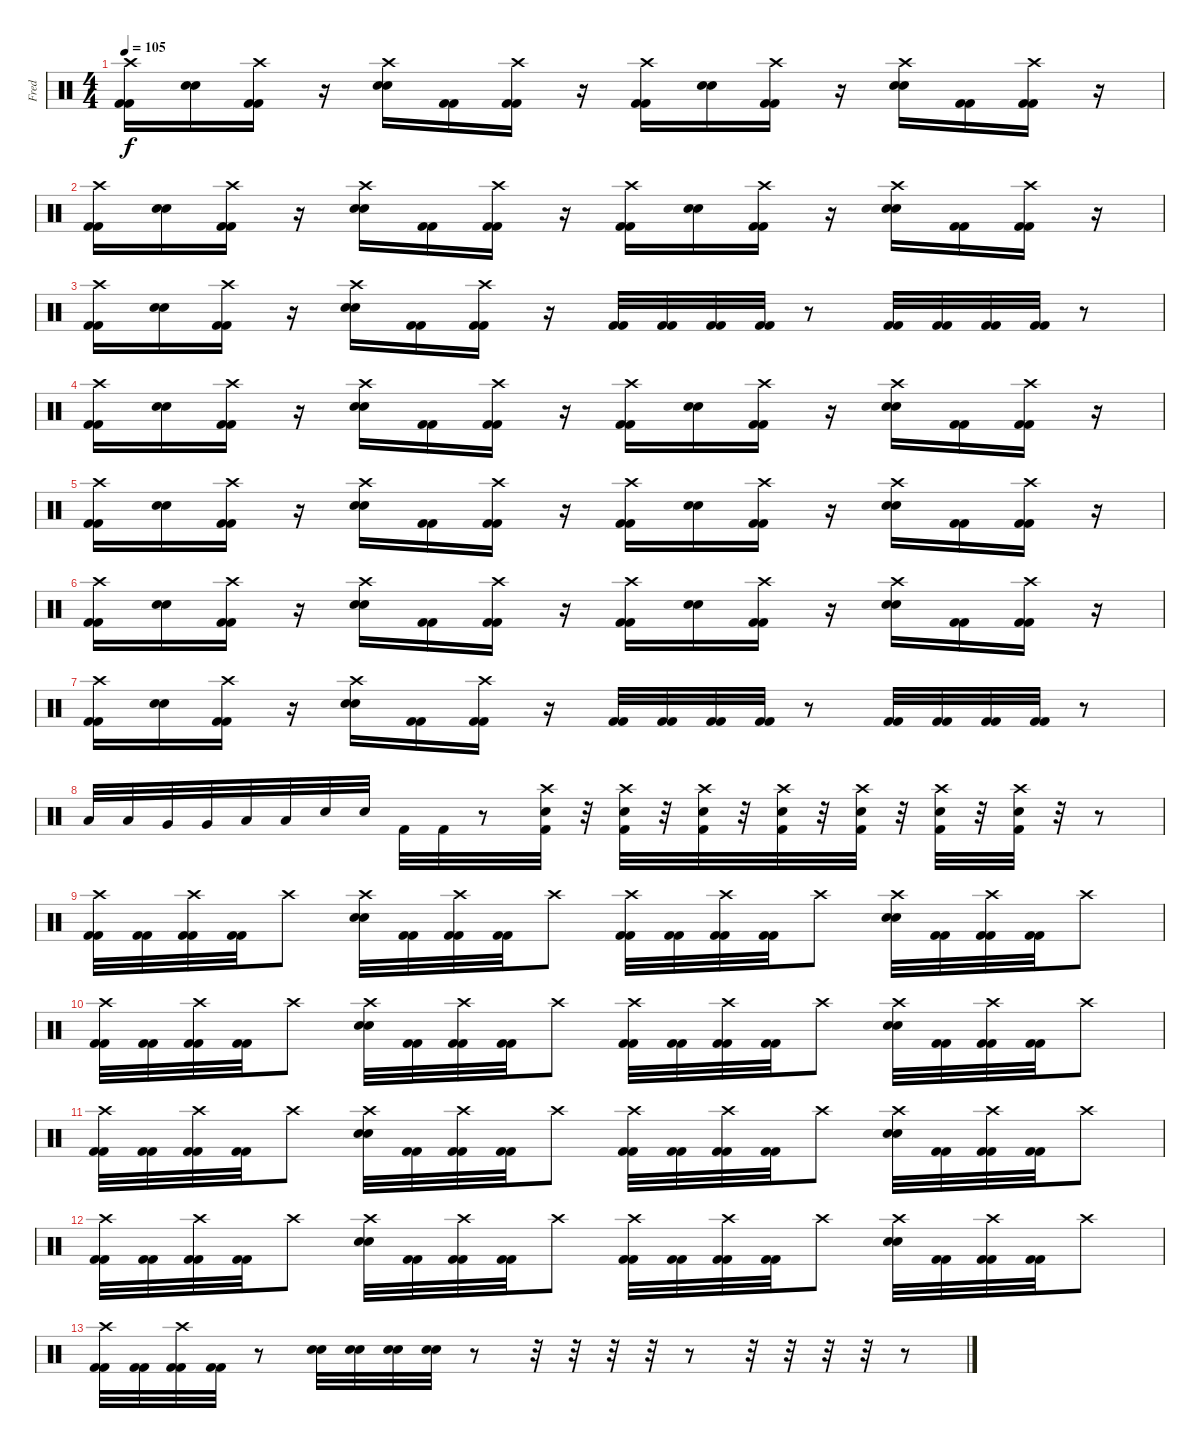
\track ("Fred" "Fred") {instrument percussion}
\staff {score}
\articulation defaults
\ts (4 4)
\tempo 105
\clef neutral
\ks c
("Crash high (hit)" "Kick (hit) 2" "Kick (hit) 2").16{dy f} ("Electric Snare (hit)" "Electric Snare (hit)").16 ("Crash high (hit)" "Kick (hit) 2" "Kick (hit) 2").16 r.16 ("Crash high (hit)" "Electric Snare (hit)" "Electric Snare (hit)").16 ("Kick (hit) 2" "Kick (hit) 2").16 ("Crash high (hit)" "Kick (hit) 2" "Kick (hit) 2").16 r.16 ("Crash high (hit)" "Kick (hit) 2" "Kick (hit) 2").16 ("Electric Snare (hit)" "Electric Snare (hit)").16 ("Crash high (hit)" "Kick (hit) 2" "Kick (hit) 2").16 r.16 ("Crash high (hit)" "Electric Snare (hit)" "Electric Snare (hit)").16 ("Kick (hit) 2" "Kick (hit) 2").16 ("Crash high (hit)" "Kick (hit) 2" "Kick (hit) 2").16 r.16 |
("Crash high (hit)" "Kick (hit) 2" "Kick (hit) 2").16 ("Electric Snare (hit)" "Electric Snare (hit)").16 ("Crash high (hit)" "Kick (hit) 2" "Kick (hit) 2").16 r.16 ("Crash high (hit)" "Electric Snare (hit)" "Electric Snare (hit)").16 ("Kick (hit) 2" "Kick (hit) 2").16 ("Crash high (hit)" "Kick (hit) 2" "Kick (hit) 2").16 r.16 ("Crash high (hit)" "Kick (hit) 2" "Kick (hit) 2").16 ("Electric Snare (hit)" "Electric Snare (hit)").16 ("Crash high (hit)" "Kick (hit) 2" "Kick (hit) 2").16 r.16 ("Crash high (hit)" "Electric Snare (hit)" "Electric Snare (hit)").16 ("Kick (hit) 2" "Kick (hit) 2").16 ("Crash high (hit)" "Kick (hit) 2" "Kick (hit) 2").16 r.16 |
("Crash high (hit)" "Kick (hit) 2" "Kick (hit) 2").16 ("Electric Snare (hit)" "Electric Snare (hit)").16 ("Crash high (hit)" "Kick (hit) 2" "Kick (hit) 2").16 r.16 ("Crash high (hit)" "Electric Snare (hit)" "Electric Snare (hit)").16 ("Kick (hit) 2" "Kick (hit) 2").16 ("Crash high (hit)" "Kick (hit) 2" "Kick (hit) 2").16 r.16 ("Kick (hit) 2" "Kick (hit) 2").32 ("Kick (hit) 2" "Kick (hit) 2").32 ("Kick (hit) 2" "Kick (hit) 2").32 ("Kick (hit) 2" "Kick (hit) 2").32 r.8 ("Kick (hit) 2" "Kick (hit) 2").32 ("Kick (hit) 2" "Kick (hit) 2").32 ("Kick (hit) 2" "Kick (hit) 2").32 ("Kick (hit) 2" "Kick (hit) 2").32 r.8 |
("Crash high (hit)" "Kick (hit) 2" "Kick (hit) 2").16 ("Electric Snare (hit)" "Electric Snare (hit)").16 ("Crash high (hit)" "Kick (hit) 2" "Kick (hit) 2").16 r.16 ("Crash high (hit)" "Electric Snare (hit)" "Electric Snare (hit)").16 ("Kick (hit) 2" "Kick (hit) 2").16 ("Crash high (hit)" "Kick (hit) 2" "Kick (hit) 2").16 r.16 ("Crash high (hit)" "Kick (hit) 2" "Kick (hit) 2").16 ("Electric Snare (hit)" "Electric Snare (hit)").16 ("Crash high (hit)" "Kick (hit) 2" "Kick (hit) 2").16 r.16 ("Crash high (hit)" "Electric Snare (hit)" "Electric Snare (hit)").16 ("Kick (hit) 2" "Kick (hit) 2").16 ("Crash high (hit)" "Kick (hit) 2" "Kick (hit) 2").16 r.16 |
("Crash high (hit)" "Kick (hit) 2" "Kick (hit) 2").16 ("Electric Snare (hit)" "Electric Snare (hit)").16 ("Crash high (hit)" "Kick (hit) 2" "Kick (hit) 2").16 r.16 ("Crash high (hit)" "Electric Snare (hit)" "Electric Snare (hit)").16 ("Kick (hit) 2" "Kick (hit) 2").16 ("Crash high (hit)" "Kick (hit) 2" "Kick (hit) 2").16 r.16 ("Crash high (hit)" "Kick (hit) 2" "Kick (hit) 2").16 ("Electric Snare (hit)" "Electric Snare (hit)").16 ("Crash high (hit)" "Kick (hit) 2" "Kick (hit) 2").16 r.16 ("Crash high (hit)" "Electric Snare (hit)" "Electric Snare (hit)").16 ("Kick (hit) 2" "Kick (hit) 2").16 ("Crash high (hit)" "Kick (hit) 2" "Kick (hit) 2").16 r.16 |
("Crash high (hit)" "Kick (hit) 2" "Kick (hit) 2").16 ("Electric Snare (hit)" "Electric Snare (hit)").16 ("Crash high (hit)" "Kick (hit) 2" "Kick (hit) 2").16 r.16 ("Crash high (hit)" "Electric Snare (hit)" "Electric Snare (hit)").16 ("Kick (hit) 2" "Kick (hit) 2").16 ("Crash high (hit)" "Kick (hit) 2" "Kick (hit) 2").16 r.16 ("Crash high (hit)" "Kick (hit) 2" "Kick (hit) 2").16 ("Electric Snare (hit)" "Electric Snare (hit)").16 ("Crash high (hit)" "Kick (hit) 2" "Kick (hit) 2").16 r.16 ("Crash high (hit)" "Electric Snare (hit)" "Electric Snare (hit)").16 ("Kick (hit) 2" "Kick (hit) 2").16 ("Crash high (hit)" "Kick (hit) 2" "Kick (hit) 2").16 r.16 |
("Crash high (hit)" "Kick (hit) 2" "Kick (hit) 2").16 ("Electric Snare (hit)" "Electric Snare (hit)").16 ("Crash high (hit)" "Kick (hit) 2" "Kick (hit) 2").16 r.16 ("Crash high (hit)" "Electric Snare (hit)" "Electric Snare (hit)").16 ("Kick (hit) 2" "Kick (hit) 2").16 ("Crash high (hit)" "Kick (hit) 2" "Kick (hit) 2").16 r.16 ("Kick (hit) 2" "Kick (hit) 2").32 ("Kick (hit) 2" "Kick (hit) 2").32 ("Kick (hit) 2" "Kick (hit) 2").32 ("Kick (hit) 2" "Kick (hit) 2").32 r.8 ("Kick (hit) 2" "Kick (hit) 2").32 ("Kick (hit) 2" "Kick (hit) 2").32 ("Kick (hit) 2" "Kick (hit) 2").32 ("Kick (hit) 2" "Kick (hit) 2").32 r.8 |
"Low Tom (hit)".32 "Low Tom (hit)".32 "Very Low Tom (hit)".32 "Very Low Tom (hit)".32 "Low Floor Tom (hit)".32 "Low Floor Tom (hit)".32 "Electric Snare (hit)".32 "Electric Snare (hit)".32 "Kick (hit) 2".32 "Kick (hit) 2".32 r.8 ("Crash high (hit)" "Electric Snare (hit)" "Kick (hit) 2").32 r.32 ("Crash high (hit)" "Electric Snare (hit)" "Kick (hit) 2").32 r.32 ("Crash high (hit)" "Electric Snare (hit)" "Kick (hit) 2").32 r.32 ("Crash high (hit)" "Electric Snare (hit)" "Kick (hit) 2").32 r.32 ("Crash high (hit)" "Electric Snare (hit)" "Kick (hit) 2").32 r.32 ("Crash high (hit)" "Electric Snare (hit)" "Kick (hit) 2").32 r.32 ("Crash high (hit)" "Electric Snare (hit)" "Kick (hit) 2").32 r.32 r.8 |
("Crash high (hit)" "Kick (hit) 2" "Kick (hit) 2").32 ("Kick (hit) 2" "Kick (hit) 2").32 ("Crash high (hit)" "Kick (hit) 2" "Kick (hit) 2").32 ("Kick (hit) 2" "Kick (hit) 2").32 "Crash high (hit)".8 ("Crash high (hit)" "Electric Snare (hit)" "Electric Snare (hit)").32 ("Kick (hit) 2" "Kick (hit) 2").32 ("Crash high (hit)" "Kick (hit) 2" "Kick (hit) 2").32 ("Kick (hit) 2" "Kick (hit) 2").32 "Crash high (hit)".8 ("Crash high (hit)" "Kick (hit) 2" "Kick (hit) 2").32 ("Kick (hit) 2" "Kick (hit) 2").32 ("Crash high (hit)" "Kick (hit) 2" "Kick (hit) 2").32 ("Kick (hit) 2" "Kick (hit) 2").32 "Crash high (hit)".8 ("Crash high (hit)" "Electric Snare (hit)" "Electric Snare (hit)").32 ("Kick (hit) 2" "Kick (hit) 2").32 ("Crash high (hit)" "Kick (hit) 2" "Kick (hit) 2").32 ("Kick (hit) 2" "Kick (hit) 2").32 "Crash high (hit)".8 |
("Crash high (hit)" "Kick (hit) 2" "Kick (hit) 2").32 ("Kick (hit) 2" "Kick (hit) 2").32 ("Crash high (hit)" "Kick (hit) 2" "Kick (hit) 2").32 ("Kick (hit) 2" "Kick (hit) 2").32 "Crash high (hit)".8 ("Crash high (hit)" "Electric Snare (hit)" "Electric Snare (hit)").32 ("Kick (hit) 2" "Kick (hit) 2").32 ("Crash high (hit)" "Kick (hit) 2" "Kick (hit) 2").32 ("Kick (hit) 2" "Kick (hit) 2").32 "Crash high (hit)".8 ("Crash high (hit)" "Kick (hit) 2" "Kick (hit) 2").32 ("Kick (hit) 2" "Kick (hit) 2").32 ("Crash high (hit)" "Kick (hit) 2" "Kick (hit) 2").32 ("Kick (hit) 2" "Kick (hit) 2").32 "Crash high (hit)".8 ("Crash high (hit)" "Electric Snare (hit)" "Electric Snare (hit)").32 ("Kick (hit) 2" "Kick (hit) 2").32 ("Crash high (hit)" "Kick (hit) 2" "Kick (hit) 2").32 ("Kick (hit) 2" "Kick (hit) 2").32 "Crash high (hit)".8 |
("Crash high (hit)" "Kick (hit) 2" "Kick (hit) 2").32 ("Kick (hit) 2" "Kick (hit) 2").32 ("Crash high (hit)" "Kick (hit) 2" "Kick (hit) 2").32 ("Kick (hit) 2" "Kick (hit) 2").32 "Crash high (hit)".8 ("Crash high (hit)" "Electric Snare (hit)" "Electric Snare (hit)").32 ("Kick (hit) 2" "Kick (hit) 2").32 ("Crash high (hit)" "Kick (hit) 2" "Kick (hit) 2").32 ("Kick (hit) 2" "Kick (hit) 2").32 "Crash high (hit)".8 ("Crash high (hit)" "Kick (hit) 2" "Kick (hit) 2").32 ("Kick (hit) 2" "Kick (hit) 2").32 ("Crash high (hit)" "Kick (hit) 2" "Kick (hit) 2").32 ("Kick (hit) 2" "Kick (hit) 2").32 "Crash high (hit)".8 ("Crash high (hit)" "Electric Snare (hit)" "Electric Snare (hit)").32 ("Kick (hit) 2" "Kick (hit) 2").32 ("Crash high (hit)" "Kick (hit) 2" "Kick (hit) 2").32 ("Kick (hit) 2" "Kick (hit) 2").32 "Crash high (hit)".8 |
("Crash high (hit)" "Kick (hit) 2" "Kick (hit) 2").32 ("Kick (hit) 2" "Kick (hit) 2").32 ("Crash high (hit)" "Kick (hit) 2" "Kick (hit) 2").32 ("Kick (hit) 2" "Kick (hit) 2").32 "Crash high (hit)".8 ("Crash high (hit)" "Electric Snare (hit)" "Electric Snare (hit)").32 ("Kick (hit) 2" "Kick (hit) 2").32 ("Crash high (hit)" "Kick (hit) 2" "Kick (hit) 2").32 ("Kick (hit) 2" "Kick (hit) 2").32 "Crash high (hit)".8 ("Crash high (hit)" "Kick (hit) 2" "Kick (hit) 2").32 ("Kick (hit) 2" "Kick (hit) 2").32 ("Crash high (hit)" "Kick (hit) 2" "Kick (hit) 2").32 ("Kick (hit) 2" "Kick (hit) 2").32 "Crash high (hit)".8 ("Crash high (hit)" "Electric Snare (hit)" "Electric Snare (hit)").32 ("Kick (hit) 2" "Kick (hit) 2").32 ("Crash high (hit)" "Kick (hit) 2" "Kick (hit) 2").32 ("Kick (hit) 2" "Kick (hit) 2").32 "Crash high (hit)".8 |
("Crash high (hit)" "Kick (hit) 2" "Kick (hit) 2").32 ("Kick (hit) 2" "Kick (hit) 2").32 ("Crash high (hit)" "Kick (hit) 2" "Kick (hit) 2").32 ("Kick (hit) 2" "Kick (hit) 2").32 r.8 ("Electric Snare (hit)" "Electric Snare (hit)").32 ("Electric Snare (hit)" "Electric Snare (hit)").32 ("Electric Snare (hit)" "Electric Snare (hit)").32 ("Electric Snare (hit)" "Electric Snare (hit)").32 r.8 r.32 r.32 r.32 r.32 r.8 r.32 r.32 r.32 r.32 r.8
